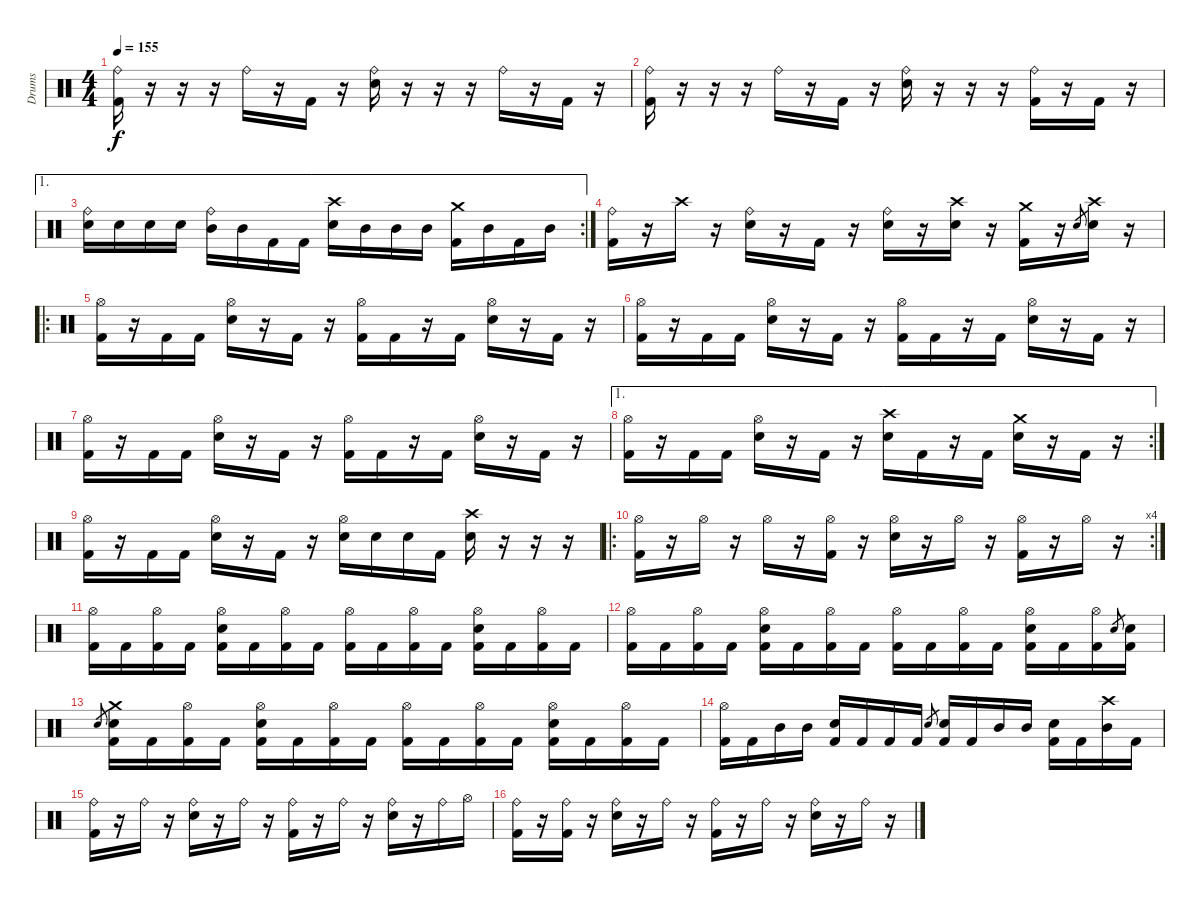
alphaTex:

\track ("Drums" "Drums") {instrument percussion}
\staff {score}
\articulation defaults
\ts (4 4)
\tempo 155
\clef neutral
\ks c
("Ride (bell)" "Kick (hit) 2").16{dy f} r.16 r.16 r.16 "Ride (bell)".16 r.16 "Kick (hit) 2".16 r.16 ("Ride (bell)" "Electric Snare (hit)").16 r.16 r.16 r.16 "Ride (bell)".16 r.16 "Kick (hit) 2".16 r.16 |
("Ride (bell)" "Kick (hit) 2").16 r.16 r.16 r.16 "Ride (bell)".16 r.16 "Kick (hit) 2".16 r.16 ("Ride (bell)" "Electric Snare (hit)").16 r.16 r.16 r.16 ("Ride (bell)" "Kick (hit) 2").16 r.16 "Kick (hit) 2".16 r.16 |
\ae 1
\rc 2
("Ride (bell)" "Electric Snare (hit)").16 "Electric Snare (hit)".16 "Electric Snare (hit)".16 "Electric Snare (hit)".16 ("Ride (bell)" "Mid Tom (hit)").16 "Mid Tom (hit)".16 "Kick (hit) 2".16 "Kick (hit) 2".16 ("Crash high (hit)" "Electric Snare (hit)").16 "Mid Tom (hit)".16 "Mid Tom (hit)".16 "Mid Tom (hit)".16 ("Crash medium (hit)" "Kick (hit) 2").16 "Mid Tom (hit)".16 "Kick (hit) 2".16 "Mid Tom (hit)".16 |
("Ride (bell)" "Kick (hit) 2").16 r.16 "Crash high (hit)".16 r.16 ("Ride (bell)" "Electric Snare (hit)").16 r.16 "Kick (hit) 2".16 r.16 ("Ride (bell)" "Electric Snare (hit)").16 r.16 ("Crash high (hit)" "Electric Snare (hit)").16 r.16 ("Crash medium (hit)" "Kick (hit) 2").16 r.16 "Electric Snare (hit)".8{gr} ("Crash high (hit)" "Electric Snare (hit)").16 r.16 |
\ro
("Hi-Hat (open)" "Kick (hit) 2").16 r.16 "Kick (hit) 2".16 "Kick (hit) 2".16 ("Hi-Hat (open)" "Electric Snare (hit)").16 r.16 "Kick (hit) 2".16 r.16 ("Hi-Hat (open)" "Kick (hit) 2").16 "Kick (hit) 2".16 r.16 "Kick (hit) 2".16 ("Hi-Hat (open)" "Electric Snare (hit)").16 r.16 "Kick (hit) 2".16 r.16 |
("Hi-Hat (open)" "Kick (hit) 2").16 r.16 "Kick (hit) 2".16 "Kick (hit) 2".16 ("Hi-Hat (open)" "Electric Snare (hit)").16 r.16 "Kick (hit) 2".16 r.16 ("Hi-Hat (open)" "Kick (hit) 2").16 "Kick (hit) 2".16 r.16 "Kick (hit) 2".16 ("Hi-Hat (open)" "Electric Snare (hit)").16 r.16 "Kick (hit) 2".16 r.16 |
("Hi-Hat (open)" "Kick (hit) 2").16 r.16 "Kick (hit) 2".16 "Kick (hit) 2".16 ("Hi-Hat (open)" "Electric Snare (hit)").16 r.16 "Kick (hit) 2".16 r.16 ("Hi-Hat (open)" "Kick (hit) 2").16 "Kick (hit) 2".16 r.16 "Kick (hit) 2".16 ("Hi-Hat (open)" "Electric Snare (hit)").16 r.16 "Kick (hit) 2".16 r.16 |
\ae 1
\rc 2
("Hi-Hat (open)" "Kick (hit) 2").16 r.16 "Kick (hit) 2".16 "Kick (hit) 2".16 ("Hi-Hat (open)" "Electric Snare (hit)").16 r.16 "Kick (hit) 2".16 r.16 ("Crash high (hit)" "Electric Snare (hit)").16 "Kick (hit) 2".16 r.16 "Kick (hit) 2".16 ("Crash medium (hit)" "Electric Snare (hit)").16 r.16 "Kick (hit) 2".16 r.16 |
("Hi-Hat (open)" "Kick (hit) 2").16 r.16 "Kick (hit) 2".16 "Kick (hit) 2".16 ("Hi-Hat (open)" "Electric Snare (hit)").16 r.16 "Kick (hit) 2".16 r.16 ("Hi-Hat (open)" "Electric Snare (hit)").16 "Electric Snare (hit)".16 "Electric Snare (hit)".16 "Kick (hit) 2".16 ("Crash high (hit)" "Electric Snare (hit)").16 r.16 r.16 r.16 |
\ro
\rc 4
("Hi-Hat (open)" "Kick (hit) 2").16 r.16 "Hi-Hat (open)".16 r.16 "Hi-Hat (open)".16 r.16 ("Hi-Hat (open)" "Kick (hit) 2").16 r.16 ("Hi-Hat (open)" "Electric Snare (hit)").16 r.16 "Hi-Hat (open)".16 r.16 ("Hi-Hat (open)" "Kick (hit) 2").16 r.16 "Hi-Hat (open)".16 r.16 |
("Hi-Hat (open)" "Kick (hit) 2").16 "Kick (hit) 2".16 ("Hi-Hat (open)" "Kick (hit) 2").16 "Kick (hit) 2".16 ("Hi-Hat (open)" "Electric Snare (hit)" "Kick (hit) 2").16 "Kick (hit) 2".16 ("Hi-Hat (open)" "Kick (hit) 2").16 "Kick (hit) 2".16 ("Hi-Hat (open)" "Kick (hit) 2").16 "Kick (hit) 2".16 ("Hi-Hat (open)" "Kick (hit) 2").16 "Kick (hit) 2".16 ("Hi-Hat (open)" "Electric Snare (hit)" "Kick (hit) 2").16 "Kick (hit) 2".16 ("Hi-Hat (open)" "Kick (hit) 2").16 "Kick (hit) 2".16 |
("Hi-Hat (open)" "Kick (hit) 2").16 "Kick (hit) 2".16 ("Hi-Hat (open)" "Kick (hit) 2").16 "Kick (hit) 2".16 ("Hi-Hat (open)" "Electric Snare (hit)" "Kick (hit) 2").16 "Kick (hit) 2".16 ("Hi-Hat (open)" "Kick (hit) 2").16 "Kick (hit) 2".16 ("Hi-Hat (open)" "Kick (hit) 2").16 "Kick (hit) 2".16 ("Hi-Hat (open)" "Kick (hit) 2").16 "Kick (hit) 2".16 ("Hi-Hat (open)" "Electric Snare (hit)" "Kick (hit) 2").16 "Kick (hit) 2".16 ("Hi-Hat (open)" "Kick (hit) 2").16 "Electric Snare (hit)".8{gr} ("Electric Snare (hit)" "Kick (hit) 2").16 |
"Electric Snare (hit)".8{gr} ("Crash medium (hit)" "Electric Snare (hit)" "Kick (hit) 2").16 "Kick (hit) 2".16 ("Hi-Hat (open)" "Kick (hit) 2").16 "Kick (hit) 2".16 ("Hi-Hat (open)" "Electric Snare (hit)" "Kick (hit) 2").16 "Kick (hit) 2".16 ("Hi-Hat (open)" "Kick (hit) 2").16 "Kick (hit) 2".16 ("Hi-Hat (open)" "Kick (hit) 2").16 "Kick (hit) 2".16 ("Hi-Hat (open)" "Kick (hit) 2").16 "Kick (hit) 2".16 ("Hi-Hat (open)" "Electric Snare (hit)" "Kick (hit) 2").16 "Kick (hit) 2".16 ("Hi-Hat (open)" "Kick (hit) 2").16 "Kick (hit) 2".16 |
("Hi-Hat (open)" "Kick (hit) 2").16 "Kick (hit) 2".16 "Mid Tom (hit)".16 "Mid Tom (hit)".16 ("Electric Snare (hit)" "Kick (hit) 2").16 "Kick (hit) 2".16 "Kick (hit) 2".16 "Kick (hit) 2".16 "Electric Snare (hit)".8{gr} ("Electric Snare (hit)" "Kick (hit) 2").16 "Kick (hit) 2".16 "Mid Tom (hit)".16 "Mid Tom (hit)".16 ("Electric Snare (hit)" "Kick (hit) 2").16 "Kick (hit) 2".16 ("Crash high (hit)" "Mid Tom (hit)").16 "Kick (hit) 2".16 |
("Ride (bell)" "Kick (hit) 2").16 r.16 "Ride (bell)".16 r.16 ("Ride (bell)" "Electric Snare (hit)").16 r.16 "Ride (bell)".16 r.16 ("Ride (bell)" "Kick (hit) 2").16 r.16 "Ride (bell)".16 r.16 ("Ride (bell)" "Electric Snare (hit)").16 r.16 "Ride (bell)".16 "Hi-Hat (open)".16 |
("Ride (bell)" "Kick (hit) 2").16 r.16 ("Ride (bell)" "Kick (hit) 2").16 r.16 ("Ride (bell)" "Electric Snare (hit)").16 r.16 "Ride (bell)".16 r.16 ("Ride (bell)" "Kick (hit) 2").16 r.16 "Ride (bell)".16 r.16 ("Ride (bell)" "Electric Snare (hit)").16 r.16 "Ride (bell)".16 r.16
